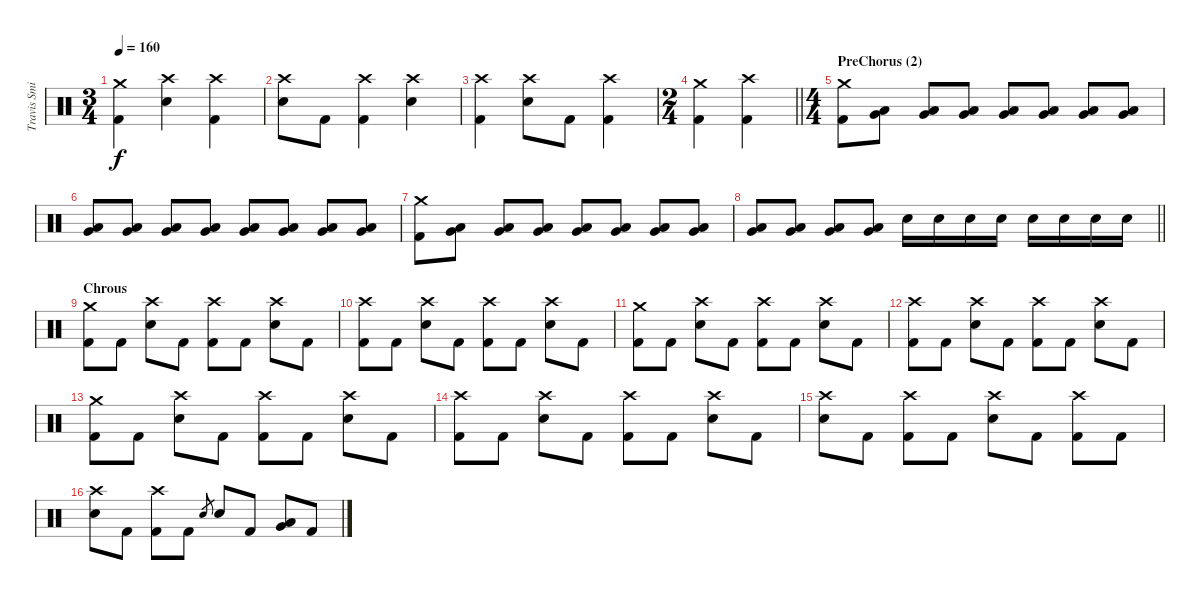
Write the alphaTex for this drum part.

\track ("Travis Smith" "Travis Smi") {instrument percussion}
\staff {score}
\articulation defaults
\ts (3 4)
\tempo 160
\clef neutral
\ks c
("Crash medium (hit)" "Kick (hit) 2").4{dy f} ("Crash high (hit)" "Electric Snare (hit)").4 ("Crash high (hit)" "Kick (hit) 2").4 |
("Crash high (hit)" "Electric Snare (hit)").8 "Kick (hit) 2".8 ("Crash high (hit)" "Kick (hit) 2").4 ("Crash high (hit)" "Electric Snare (hit)").4 |
("Crash high (hit)" "Kick (hit) 2").4 ("Crash high (hit)" "Electric Snare (hit)").8 "Kick (hit) 2".8 ("Crash high (hit)" "Kick (hit) 2").4 |
\ts (2 4)
\barLineRight lightlight
("Crash medium (hit)" "Kick (hit) 2").4 ("Crash high (hit)" "Kick (hit) 2").4 |
\ts (4 4)
\section ("" "PreChorus (2)")
("Crash medium (hit)" "Kick (hit) 2").8 ("Low Tom (hit)" "Very Low Tom (hit)").8 ("Low Tom (hit)" "Very Low Tom (hit)").8 ("Low Tom (hit)" "Very Low Tom (hit)").8 ("Low Tom (hit)" "Very Low Tom (hit)").8 ("Low Tom (hit)" "Very Low Tom (hit)").8 ("Low Tom (hit)" "Very Low Tom (hit)").8 ("Low Tom (hit)" "Very Low Tom (hit)").8 |
("Low Tom (hit)" "Very Low Tom (hit)").8 ("Low Tom (hit)" "Very Low Tom (hit)").8 ("Low Tom (hit)" "Very Low Tom (hit)").8 ("Low Tom (hit)" "Very Low Tom (hit)").8 ("Low Tom (hit)" "Very Low Tom (hit)").8 ("Low Tom (hit)" "Very Low Tom (hit)").8 ("Low Tom (hit)" "Very Low Tom (hit)").8 ("Low Tom (hit)" "Very Low Tom (hit)").8 |
("Crash medium (hit)" "Kick (hit) 2").8 ("Low Tom (hit)" "Very Low Tom (hit)").8 ("Low Tom (hit)" "Very Low Tom (hit)").8 ("Low Tom (hit)" "Very Low Tom (hit)").8 ("Low Tom (hit)" "Very Low Tom (hit)").8 ("Low Tom (hit)" "Very Low Tom (hit)").8 ("Low Tom (hit)" "Very Low Tom (hit)").8 ("Low Tom (hit)" "Very Low Tom (hit)").8 |
\barLineRight lightlight
("Low Tom (hit)" "Very Low Tom (hit)").8 ("Low Tom (hit)" "Very Low Tom (hit)").8 ("Low Tom (hit)" "Very Low Tom (hit)").8 ("Low Tom (hit)" "Very Low Tom (hit)").8 "Electric Snare (hit)".16 "Electric Snare (hit)".16 "Electric Snare (hit)".16 "Electric Snare (hit)".16 "Electric Snare (hit)".16 "Electric Snare (hit)".16 "Electric Snare (hit)".16 "Electric Snare (hit)".16 |
\section ("" "Chrous")
("Crash medium (hit)" "Kick (hit) 2").8 "Kick (hit) 2".8 ("Crash high (hit)" "Electric Snare (hit)").8 "Kick (hit) 2".8 ("Crash high (hit)" "Kick (hit) 2").8 "Kick (hit) 2".8 ("Crash high (hit)" "Electric Snare (hit)").8 "Kick (hit) 2".8 |
("Crash high (hit)" "Kick (hit) 2").8 "Kick (hit) 2".8 ("Crash high (hit)" "Electric Snare (hit)").8 "Kick (hit) 2".8 ("Crash high (hit)" "Kick (hit) 2").8 "Kick (hit) 2".8 ("Crash high (hit)" "Electric Snare (hit)").8 "Kick (hit) 2".8 |
("Crash medium (hit)" "Kick (hit) 2").8 "Kick (hit) 2".8 ("Crash high (hit)" "Electric Snare (hit)").8 "Kick (hit) 2".8 ("Crash high (hit)" "Kick (hit) 2").8 "Kick (hit) 2".8 ("Crash high (hit)" "Electric Snare (hit)").8 "Kick (hit) 2".8 |
("Crash high (hit)" "Kick (hit) 2").8 "Kick (hit) 2".8 ("Crash high (hit)" "Electric Snare (hit)").8 "Kick (hit) 2".8 ("Crash high (hit)" "Kick (hit) 2").8 "Kick (hit) 2".8 ("Crash high (hit)" "Electric Snare (hit)").8 "Kick (hit) 2".8 |
("Crash medium (hit)" "Kick (hit) 2").8 "Kick (hit) 2".8 ("Crash high (hit)" "Electric Snare (hit)").8 "Kick (hit) 2".8 ("Crash high (hit)" "Kick (hit) 2").8 "Kick (hit) 2".8 ("Crash high (hit)" "Electric Snare (hit)").8 "Kick (hit) 2".8 |
("Crash high (hit)" "Kick (hit) 2").8 "Kick (hit) 2".8 ("Crash high (hit)" "Electric Snare (hit)").8 "Kick (hit) 2".8 ("Crash high (hit)" "Kick (hit) 2").8 "Kick (hit) 2".8 ("Crash high (hit)" "Electric Snare (hit)").8 "Kick (hit) 2".8 |
("Crash high (hit)" "Electric Snare (hit)").8 "Kick (hit) 2".8 ("Crash high (hit)" "Kick (hit) 2").8 "Kick (hit) 2".8 ("Crash high (hit)" "Electric Snare (hit)").8 "Kick (hit) 2".8 ("Crash high (hit)" "Kick (hit) 2").8 "Kick (hit) 2".8 |
("Crash high (hit)" "Electric Snare (hit)").8 "Kick (hit) 2".8 ("Crash high (hit)" "Kick (hit) 2").8 "Kick (hit) 2".8 "Electric Snare (hit)".8{gr} "Electric Snare (hit)".8 "Kick (hit) 2".8 ("Very Low Tom (hit)" "Low Floor Tom (hit)").8 "Kick (hit) 2".8
